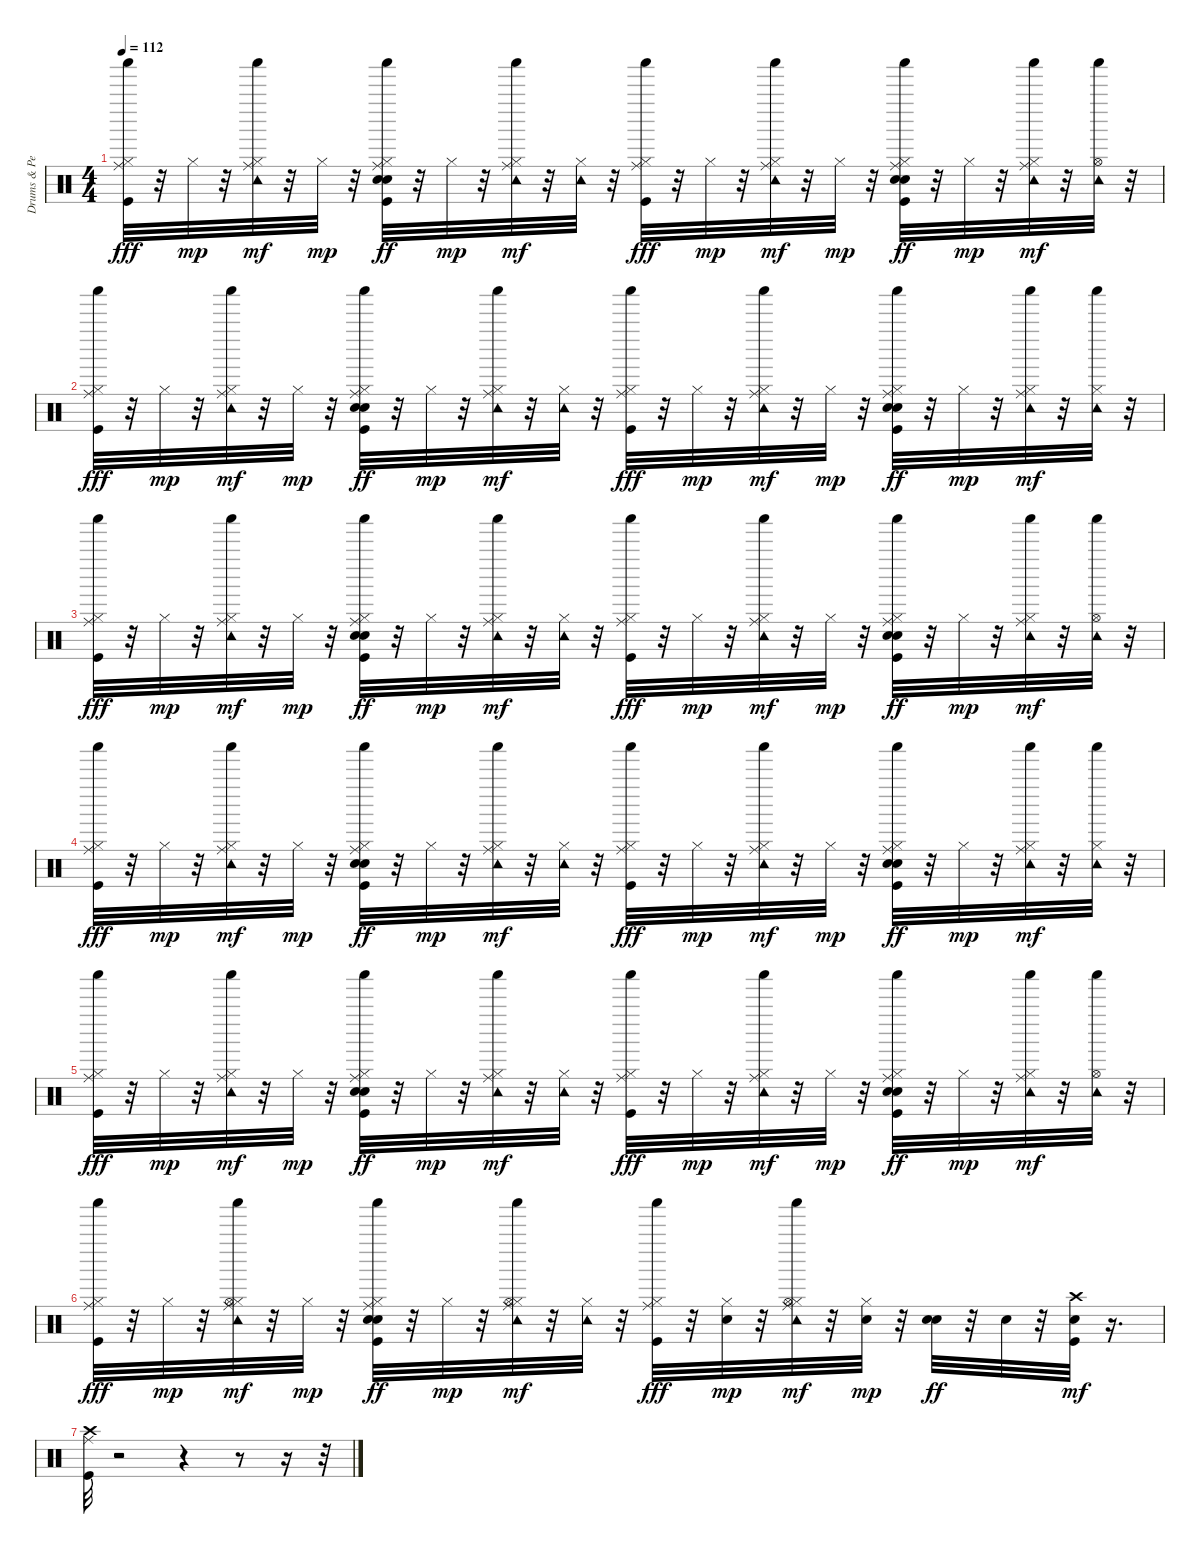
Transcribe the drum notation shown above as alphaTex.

\track ("Drums & Percussion" "Drums & Pe") {instrument percussion}
\staff {score}
\articulation defaults
\ts (4 4)
\tempo 112
\clef neutral
\ks c
("Shaker (hit)" "Hi-Hat (closed)" "Ride (middle)" "Kick (hit)").32{dy fff} r.32 "Hi-Hat (closed)".32{dy mp} r.32 ("Shaker (hit)" "Hi-Hat (closed)" "Ride (middle)" "Tambourine (hit)").32{dy mf} r.32 "Hi-Hat (closed)".32{dy mp} r.32 ("Shaker (hit)" "Snare (hit) 2" "Hi-Hat (closed)" "Ride (middle)" "Hand Clap (hit)" "Kick (hit)").32{dy ff} r.32 "Hi-Hat (closed)".32{dy mp} r.32 ("Shaker (hit)" "Hi-Hat (closed)" "Ride (middle)" "Tambourine (hit)").32{dy mf} r.32 ("Hi-Hat (closed)" "Tambourine (hit)").32 r.32 ("Shaker (hit)" "Hi-Hat (closed)" "Ride (middle)" "Kick (hit)").32{dy fff} r.32 "Hi-Hat (closed)".32{dy mp} r.32 ("Shaker (hit)" "Hi-Hat (closed)" "Ride (middle)" "Tambourine (hit)").32{dy mf} r.32 "Hi-Hat (closed)".32{dy mp} r.32 ("Shaker (hit)" "Snare (hit) 2" "Hi-Hat (closed)" "Ride (middle)" "Hand Clap (hit)" "Kick (hit)").32{dy ff} r.32 "Hi-Hat (closed)".32{dy mp} r.32 ("Shaker (hit)" "Hi-Hat (closed)" "Ride (middle)" "Tambourine (hit)").32{dy mf} r.32 ("Hi-Hat (open)" "Shaker (hit)" "Tambourine (hit)").32 r.32 |
("Shaker (hit)" "Hi-Hat (closed)" "Ride (middle)" "Kick (hit)").32{dy fff} r.32 "Hi-Hat (closed)".32{dy mp} r.32 ("Shaker (hit)" "Hi-Hat (closed)" "Ride (middle)" "Tambourine (hit)").32{dy mf} r.32 "Hi-Hat (closed)".32{dy mp} r.32 ("Shaker (hit)" "Snare (hit) 2" "Hi-Hat (closed)" "Ride (middle)" "Hand Clap (hit)" "Kick (hit)").32{dy ff} r.32 "Hi-Hat (closed)".32{dy mp} r.32 ("Shaker (hit)" "Hi-Hat (closed)" "Ride (middle)" "Tambourine (hit)").32{dy mf} r.32 ("Hi-Hat (closed)" "Tambourine (hit)").32 r.32 ("Shaker (hit)" "Hi-Hat (closed)" "Ride (middle)" "Kick (hit)").32{dy fff} r.32 "Hi-Hat (closed)".32{dy mp} r.32 ("Shaker (hit)" "Hi-Hat (closed)" "Ride (middle)" "Tambourine (hit)").32{dy mf} r.32 "Hi-Hat (closed)".32{dy mp} r.32 ("Shaker (hit)" "Snare (hit) 2" "Hi-Hat (closed)" "Ride (middle)" "Hand Clap (hit)" "Kick (hit)").32{dy ff} r.32 "Hi-Hat (closed)".32{dy mp} r.32 ("Shaker (hit)" "Hi-Hat (closed)" "Ride (middle)" "Tambourine (hit)").32{dy mf} r.32 ("Shaker (hit)" "Hi-Hat (closed)" "Tambourine (hit)").32 r.32 |
("Shaker (hit)" "Hi-Hat (closed)" "Ride (middle)" "Kick (hit)").32{dy fff} r.32 "Hi-Hat (closed)".32{dy mp} r.32 ("Shaker (hit)" "Hi-Hat (closed)" "Ride (middle)" "Tambourine (hit)").32{dy mf} r.32 "Hi-Hat (closed)".32{dy mp} r.32 ("Shaker (hit)" "Snare (hit) 2" "Hi-Hat (closed)" "Ride (middle)" "Hand Clap (hit)" "Kick (hit)").32{dy ff} r.32 "Hi-Hat (closed)".32{dy mp} r.32 ("Shaker (hit)" "Hi-Hat (closed)" "Ride (middle)" "Tambourine (hit)").32{dy mf} r.32 ("Hi-Hat (closed)" "Tambourine (hit)").32 r.32 ("Shaker (hit)" "Hi-Hat (closed)" "Ride (middle)" "Kick (hit)").32{dy fff} r.32 "Hi-Hat (closed)".32{dy mp} r.32 ("Shaker (hit)" "Hi-Hat (closed)" "Ride (middle)" "Tambourine (hit)").32{dy mf} r.32 "Hi-Hat (closed)".32{dy mp} r.32 ("Shaker (hit)" "Snare (hit) 2" "Hi-Hat (closed)" "Ride (middle)" "Hand Clap (hit)" "Kick (hit)").32{dy ff} r.32 "Hi-Hat (closed)".32{dy mp} r.32 ("Shaker (hit)" "Hi-Hat (closed)" "Ride (middle)" "Tambourine (hit)").32{dy mf} r.32 ("Hi-Hat (open)" "Shaker (hit)" "Tambourine (hit)").32 r.32 |
("Shaker (hit)" "Hi-Hat (closed)" "Ride (middle)" "Kick (hit)").32{dy fff} r.32 "Hi-Hat (closed)".32{dy mp} r.32 ("Shaker (hit)" "Hi-Hat (closed)" "Ride (middle)" "Tambourine (hit)").32{dy mf} r.32 "Hi-Hat (closed)".32{dy mp} r.32 ("Shaker (hit)" "Snare (hit) 2" "Hi-Hat (closed)" "Ride (middle)" "Hand Clap (hit)" "Kick (hit)").32{dy ff} r.32 "Hi-Hat (closed)".32{dy mp} r.32 ("Shaker (hit)" "Hi-Hat (closed)" "Ride (middle)" "Tambourine (hit)").32{dy mf} r.32 ("Hi-Hat (closed)" "Tambourine (hit)").32 r.32 ("Shaker (hit)" "Hi-Hat (closed)" "Ride (middle)" "Kick (hit)").32{dy fff} r.32 "Hi-Hat (closed)".32{dy mp} r.32 ("Shaker (hit)" "Hi-Hat (closed)" "Ride (middle)" "Tambourine (hit)").32{dy mf} r.32 "Hi-Hat (closed)".32{dy mp} r.32 ("Shaker (hit)" "Snare (hit) 2" "Hi-Hat (closed)" "Ride (middle)" "Hand Clap (hit)" "Kick (hit)").32{dy ff} r.32 "Hi-Hat (closed)".32{dy mp} r.32 ("Shaker (hit)" "Hi-Hat (closed)" "Ride (middle)" "Tambourine (hit)").32{dy mf} r.32 ("Shaker (hit)" "Hi-Hat (closed)" "Tambourine (hit)").32 r.32 |
("Shaker (hit)" "Hi-Hat (closed)" "Ride (middle)" "Kick (hit)").32{dy fff} r.32 "Hi-Hat (closed)".32{dy mp} r.32 ("Shaker (hit)" "Hi-Hat (closed)" "Ride (middle)" "Tambourine (hit)").32{dy mf} r.32 "Hi-Hat (closed)".32{dy mp} r.32 ("Shaker (hit)" "Snare (hit) 2" "Hi-Hat (closed)" "Ride (middle)" "Hand Clap (hit)" "Kick (hit)").32{dy ff} r.32 "Hi-Hat (closed)".32{dy mp} r.32 ("Shaker (hit)" "Hi-Hat (closed)" "Ride (middle)" "Tambourine (hit)").32{dy mf} r.32 ("Hi-Hat (closed)" "Tambourine (hit)").32 r.32 ("Shaker (hit)" "Hi-Hat (closed)" "Ride (middle)" "Kick (hit)").32{dy fff} r.32 "Hi-Hat (closed)".32{dy mp} r.32 ("Shaker (hit)" "Hi-Hat (closed)" "Ride (middle)" "Tambourine (hit)").32{dy mf} r.32 "Hi-Hat (closed)".32{dy mp} r.32 ("Shaker (hit)" "Snare (hit) 2" "Hi-Hat (closed)" "Ride (middle)" "Hand Clap (hit)" "Kick (hit)").32{dy ff} r.32 "Hi-Hat (closed)".32{dy mp} r.32 ("Shaker (hit)" "Hi-Hat (closed)" "Ride (middle)" "Tambourine (hit)").32{dy mf} r.32 ("Hi-Hat (open)" "Shaker (hit)" "Tambourine (hit)").32 r.32 |
("Shaker (hit)" "Hi-Hat (closed)" "Ride (middle)" "Kick (hit)").32{dy fff} r.32 "Hi-Hat (closed)".32{dy mp} r.32 ("Shaker (hit)" "Hi-Hat (closed)" "Hi-Hat (open)" "Ride (middle)" "Tambourine (hit)").32{dy mf} r.32 "Hi-Hat (closed)".32{dy mp} r.32 ("Shaker (hit)" "Snare (hit) 2" "Hi-Hat (closed)" "Ride (middle)" "Hand Clap (hit)" "Kick (hit)").32{dy ff} r.32 "Hi-Hat (closed)".32{dy mp} r.32 ("Shaker (hit)" "Hi-Hat (closed)" "Hi-Hat (open)" "Ride (middle)" "Tambourine (hit)").32{dy mf} r.32 ("Hi-Hat (closed)" "Tambourine (hit)").32 r.32 ("Shaker (hit)" "Hi-Hat (closed)" "Ride (middle)" "Kick (hit)").32{dy fff} r.32 ("Snare (hit) 2" "Hi-Hat (closed)").32{dy mp} r.32 ("Shaker (hit)" "Hi-Hat (closed)" "Hi-Hat (open)" "Ride (middle)" "Tambourine (hit)").32{dy mf} r.32 ("Snare (hit) 2" "Hi-Hat (closed)").32{dy mp} r.32 ("Snare (hit) 2" "Hand Clap (hit)").32{dy ff} r.32 "Snare (hit) 2".32 r.32 ("Snare (hit) 2" "Crash high (hit)" "Kick (hit)").32{dy mf} r.16{d} |
("Ride (middle)" "Crash high (hit)" "Kick (hit)").32 r.2 r.4 r.8 r.16 r.32
